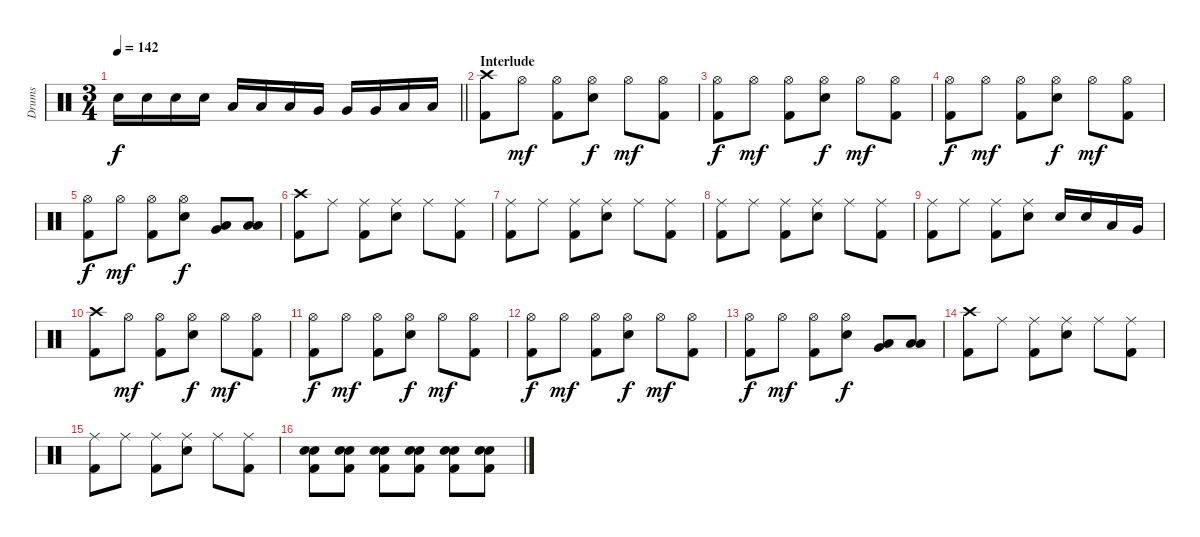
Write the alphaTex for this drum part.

\track ("Drums" "Drums") {instrument percussion}
\staff {score}
\articulation defaults
\ts (3 4)
\tempo 142
\clef neutral
\barLineRight lightlight
\ks c "Electric Snare (hit)".16{dy f} "Electric Snare (hit)".16 "Electric Snare (hit)".16 "Electric Snare (hit)".16 "Low Tom (hit)".16 "Low Tom (hit)".16 "Low Tom (hit)".16 "Very Low Tom (hit)".16 "Very Low Tom (hit)".16 "Very Low Tom (hit)".16 "Low Floor Tom (hit)".16 "Low Floor Tom (hit)".16
|
\section ("" "Interlude")
("Crash high (hit)" "Kick (hit) 2").8 "Hi-Hat (open)".8{dy mf} ("Hi-Hat (open)" "Kick (hit) 2").8 ("Hi-Hat (open)" "Electric Snare (hit)").8{dy f} "Hi-Hat (open)".8{dy mf} ("Hi-Hat (open)" "Kick (hit) 2").8 |
("Hi-Hat (open)" "Kick (hit) 2").8{dy f} "Hi-Hat (open)".8{dy mf} ("Hi-Hat (open)" "Kick (hit) 2").8 ("Hi-Hat (open)" "Electric Snare (hit)").8{dy f} "Hi-Hat (open)".8{dy mf} ("Hi-Hat (open)" "Kick (hit) 2").8 |
("Hi-Hat (open)" "Kick (hit) 2").8{dy f} "Hi-Hat (open)".8{dy mf} ("Hi-Hat (open)" "Kick (hit) 2").8 ("Hi-Hat (open)" "Electric Snare (hit)").8{dy f} "Hi-Hat (open)".8{dy mf} ("Hi-Hat (open)" "Kick (hit) 2").8 |
("Hi-Hat (open)" "Kick (hit) 2").8{dy f} "Hi-Hat (open)".8{dy mf} ("Hi-Hat (open)" "Kick (hit) 2").8 ("Hi-Hat (open)" "Electric Snare (hit)").8{dy f} ("Low Tom (hit)" "Very Low Tom (hit)").8 ("Low Tom (hit)" "Low Floor Tom (hit)").8 |
("Crash high (hit)" "Kick (hit) 2").8 "Ride (middle)".8 ("Ride (middle)" "Kick (hit) 2").8 ("Ride (middle)" "Electric Snare (hit)").8 "Ride (middle)".8 ("Ride (middle)" "Kick (hit) 2").8 |
("Ride (middle)" "Kick (hit) 2").8 "Ride (middle)".8 ("Ride (middle)" "Kick (hit) 2").8 ("Ride (middle)" "Electric Snare (hit)").8 "Ride (middle)".8 ("Ride (middle)" "Kick (hit) 2").8 |
("Ride (middle)" "Kick (hit) 2").8 "Ride (middle)".8 ("Ride (middle)" "Kick (hit) 2").8 ("Ride (middle)" "Electric Snare (hit)").8 "Ride (middle)".8 ("Ride (middle)" "Kick (hit) 2").8 |
("Ride (middle)" "Kick (hit) 2").8 "Ride (middle)".8 ("Ride (middle)" "Kick (hit) 2").8 ("Ride (middle)" "Electric Snare (hit)").8 "Electric Snare (hit)".16 "Electric Snare (hit)".16 "Low Tom (hit)".16 "Very Low Tom (hit)".16 |
("Crash high (hit)" "Kick (hit) 2").8 "Hi-Hat (open)".8{dy mf} ("Hi-Hat (open)" "Kick (hit) 2").8 ("Hi-Hat (open)" "Electric Snare (hit)").8{dy f} "Hi-Hat (open)".8{dy mf} ("Hi-Hat (open)" "Kick (hit) 2").8 |
("Hi-Hat (open)" "Kick (hit) 2").8{dy f} "Hi-Hat (open)".8{dy mf} ("Hi-Hat (open)" "Kick (hit) 2").8 ("Hi-Hat (open)" "Electric Snare (hit)").8{dy f} "Hi-Hat (open)".8{dy mf} ("Hi-Hat (open)" "Kick (hit) 2").8 |
("Hi-Hat (open)" "Kick (hit) 2").8{dy f} "Hi-Hat (open)".8{dy mf} ("Hi-Hat (open)" "Kick (hit) 2").8 ("Hi-Hat (open)" "Electric Snare (hit)").8{dy f} "Hi-Hat (open)".8{dy mf} ("Hi-Hat (open)" "Kick (hit) 2").8 |
("Hi-Hat (open)" "Kick (hit) 2").8{dy f} "Hi-Hat (open)".8{dy mf} ("Hi-Hat (open)" "Kick (hit) 2").8 ("Hi-Hat (open)" "Electric Snare (hit)").8{dy f} ("Low Tom (hit)" "Very Low Tom (hit)").8 ("Low Tom (hit)" "Low Floor Tom (hit)").8 |
("Crash high (hit)" "Kick (hit) 2").8 "Ride (middle)".8 ("Ride (middle)" "Kick (hit) 2").8 ("Ride (middle)" "Electric Snare (hit)").8 "Ride (middle)".8 ("Ride (middle)" "Kick (hit) 2").8 |
("Ride (middle)" "Kick (hit) 2").8 "Ride (middle)".8 ("Ride (middle)" "Kick (hit) 2").8 ("Ride (middle)" "Electric Snare (hit)").8 "Ride (middle)".8 ("Ride (middle)" "Kick (hit) 2").8 |
("Electric Snare (hit)" "Snare (hit) 2" "Kick (hit) 2").8 ("Electric Snare (hit)" "Snare (hit) 2" "Kick (hit) 2").8 ("Electric Snare (hit)" "Snare (hit) 2" "Kick (hit) 2").8 ("Electric Snare (hit)" "Snare (hit) 2" "Kick (hit) 2").8 ("Electric Snare (hit)" "Snare (hit) 2" "Kick (hit) 2").8 ("Electric Snare (hit)" "Snare (hit) 2" "Kick (hit) 2").8
